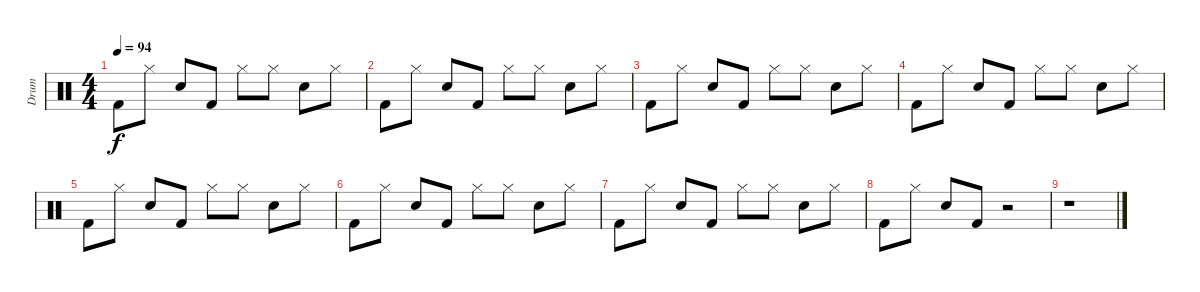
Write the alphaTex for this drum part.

\track ("Drum" "Drum") {instrument percussion}
\staff {score}
\articulation defaults
\ts (4 4)
\tempo 94
\clef neutral
\ks c "Kick (hit) 2".8{dy f} "Hi-Hat (closed)".8 "Electric Snare (hit)".8 "Kick (hit) 2".8 "Hi-Hat (closed)".8 "Hi-Hat (closed)".8 "Electric Snare (hit)".8 "Hi-Hat (closed)".8
|
"Kick (hit) 2".8 "Hi-Hat (closed)".8 "Electric Snare (hit)".8 "Kick (hit) 2".8 "Hi-Hat (closed)".8 "Hi-Hat (closed)".8 "Electric Snare (hit)".8 "Hi-Hat (closed)".8 |
"Kick (hit) 2".8 "Hi-Hat (closed)".8 "Electric Snare (hit)".8 "Kick (hit) 2".8 "Hi-Hat (closed)".8 "Hi-Hat (closed)".8 "Electric Snare (hit)".8 "Hi-Hat (closed)".8 |
"Kick (hit) 2".8 "Hi-Hat (closed)".8 "Electric Snare (hit)".8 "Kick (hit) 2".8 "Hi-Hat (closed)".8 "Hi-Hat (closed)".8 "Electric Snare (hit)".8 "Hi-Hat (closed)".8 |
"Kick (hit) 2".8 "Hi-Hat (closed)".8 "Electric Snare (hit)".8 "Kick (hit) 2".8 "Hi-Hat (closed)".8 "Hi-Hat (closed)".8 "Electric Snare (hit)".8 "Hi-Hat (closed)".8 |
"Kick (hit) 2".8 "Hi-Hat (closed)".8 "Electric Snare (hit)".8 "Kick (hit) 2".8 "Hi-Hat (closed)".8 "Hi-Hat (closed)".8 "Electric Snare (hit)".8 "Hi-Hat (closed)".8 |
"Kick (hit) 2".8 "Hi-Hat (closed)".8 "Electric Snare (hit)".8 "Kick (hit) 2".8 "Hi-Hat (closed)".8 "Hi-Hat (closed)".8 "Electric Snare (hit)".8 "Hi-Hat (closed)".8 |
"Kick (hit) 2".8 "Hi-Hat (closed)".8 "Electric Snare (hit)".8 "Kick (hit) 2".8 r.2 |
r.1
